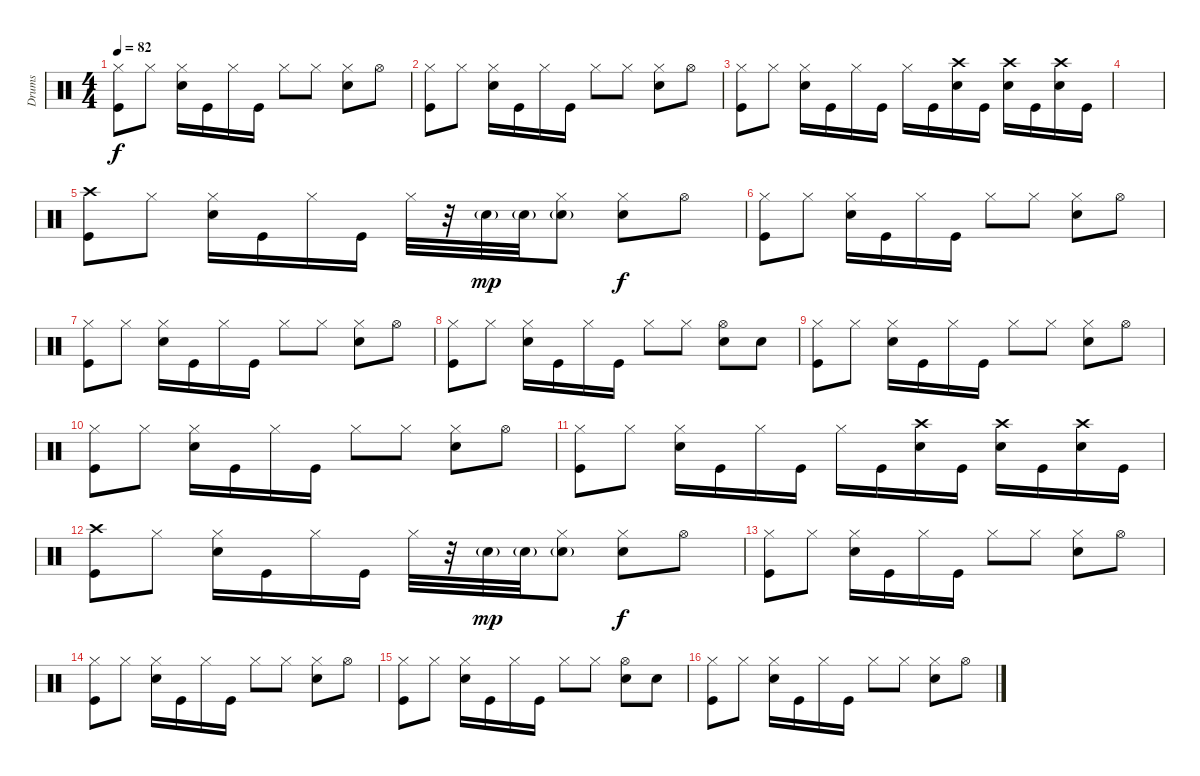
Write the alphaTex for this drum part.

\track ("Drums" "Drums") {instrument percussion}
\staff {score}
\articulation defaults
\ts (4 4)
\tempo 82
\clef neutral
\ks c
("Hi-Hat (closed)" "Kick (hit)").8{dy f} "Hi-Hat (closed)".8 ("Hi-Hat (closed)" "Snare (hit) 2").16 "Kick (hit)".16 "Hi-Hat (closed)".16 "Kick (hit)".16 "Hi-Hat (closed)".8 "Hi-Hat (closed)".8 ("Hi-Hat (closed)" "Snare (hit) 2").8 "Hi-Hat (open)".8 |
("Hi-Hat (closed)" "Kick (hit)").8 "Hi-Hat (closed)".8 ("Hi-Hat (closed)" "Snare (hit) 2").16 "Kick (hit)".16 "Hi-Hat (closed)".16 "Kick (hit)".16 "Hi-Hat (closed)".8 "Hi-Hat (closed)".8 ("Hi-Hat (closed)" "Snare (hit) 2").8 "Hi-Hat (open)".8 |
("Hi-Hat (closed)" "Kick (hit)").8 "Hi-Hat (closed)".8 ("Hi-Hat (closed)" "Snare (hit) 2").16 "Kick (hit)".16 "Hi-Hat (closed)".16 "Kick (hit)".16 "Hi-Hat (closed)".16 "Kick (hit)".16 ("Crash high (hit)" "Electric Snare (hit)").16 "Kick (hit)".16 ("Crash high (hit)" "Electric Snare (hit)").16 "Kick (hit)".16 ("Crash high (hit)" "Electric Snare (hit)").16 "Kick (hit)".16 |
|
("Crash high (hit)" "Kick (hit)").8 "Hi-Hat (closed)".8 ("Hi-Hat (closed)" "Snare (hit) 2").16 "Kick (hit)".16 "Hi-Hat (closed)".16 "Kick (hit)".16 "Hi-Hat (closed)".32 r.32 "Snare (hit) 2"{g}.32{dy mp} "Snare (hit) 2"{g}.32 ("Hi-Hat (closed)" "Snare (hit) 2"{g}).8 ("Hi-Hat (closed)" "Snare (hit) 2").8{dy f} "Hi-Hat (open)".8 |
("Hi-Hat (closed)" "Kick (hit)").8 "Hi-Hat (closed)".8 ("Hi-Hat (closed)" "Snare (hit) 2").16 "Kick (hit)".16 "Hi-Hat (closed)".16 "Kick (hit)".16 "Hi-Hat (closed)".8 "Hi-Hat (closed)".8 ("Hi-Hat (closed)" "Snare (hit) 2").8 "Hi-Hat (open)".8 |
("Hi-Hat (closed)" "Kick (hit)").8 "Hi-Hat (closed)".8 ("Hi-Hat (closed)" "Snare (hit) 2").16 "Kick (hit)".16 "Hi-Hat (closed)".16 "Kick (hit)".16 "Hi-Hat (closed)".8 "Hi-Hat (closed)".8 ("Hi-Hat (closed)" "Snare (hit) 2").8 "Hi-Hat (open)".8 |
("Hi-Hat (closed)" "Kick (hit)").8 "Hi-Hat (closed)".8 ("Hi-Hat (closed)" "Snare (hit) 2").16 "Kick (hit)".16 "Hi-Hat (closed)".16 "Kick (hit)".16 "Hi-Hat (closed)".8 "Hi-Hat (closed)".8 ("Hi-Hat (open)" "Snare (hit) 2").8 "Snare (hit) 2".8 |
("Hi-Hat (closed)" "Kick (hit)").8 "Hi-Hat (closed)".8 ("Hi-Hat (closed)" "Snare (hit) 2").16 "Kick (hit)".16 "Hi-Hat (closed)".16 "Kick (hit)".16 "Hi-Hat (closed)".8 "Hi-Hat (closed)".8 ("Hi-Hat (closed)" "Snare (hit) 2").8 "Hi-Hat (open)".8 |
("Hi-Hat (closed)" "Kick (hit)").8 "Hi-Hat (closed)".8 ("Hi-Hat (closed)" "Snare (hit) 2").16 "Kick (hit)".16 "Hi-Hat (closed)".16 "Kick (hit)".16 "Hi-Hat (closed)".8 "Hi-Hat (closed)".8 ("Hi-Hat (closed)" "Snare (hit) 2").8 "Hi-Hat (open)".8 |
("Hi-Hat (closed)" "Kick (hit)").8 "Hi-Hat (closed)".8 ("Hi-Hat (closed)" "Snare (hit) 2").16 "Kick (hit)".16 "Hi-Hat (closed)".16 "Kick (hit)".16 "Hi-Hat (closed)".16 "Kick (hit)".16 ("Crash high (hit)" "Electric Snare (hit)").16 "Kick (hit)".16 ("Crash high (hit)" "Electric Snare (hit)").16 "Kick (hit)".16 ("Crash high (hit)" "Electric Snare (hit)").16 "Kick (hit)".16 |
("Crash high (hit)" "Kick (hit)").8 "Hi-Hat (closed)".8 ("Hi-Hat (closed)" "Snare (hit) 2").16 "Kick (hit)".16 "Hi-Hat (closed)".16 "Kick (hit)".16 "Hi-Hat (closed)".32 r.32 "Snare (hit) 2"{g}.32{dy mp} "Snare (hit) 2"{g}.32 ("Hi-Hat (closed)" "Snare (hit) 2"{g}).8 ("Hi-Hat (closed)" "Snare (hit) 2").8{dy f} "Hi-Hat (open)".8 |
("Hi-Hat (closed)" "Kick (hit)").8 "Hi-Hat (closed)".8 ("Hi-Hat (closed)" "Snare (hit) 2").16 "Kick (hit)".16 "Hi-Hat (closed)".16 "Kick (hit)".16 "Hi-Hat (closed)".8 "Hi-Hat (closed)".8 ("Hi-Hat (closed)" "Snare (hit) 2").8 "Hi-Hat (open)".8 |
("Hi-Hat (closed)" "Kick (hit)").8 "Hi-Hat (closed)".8 ("Hi-Hat (closed)" "Snare (hit) 2").16 "Kick (hit)".16 "Hi-Hat (closed)".16 "Kick (hit)".16 "Hi-Hat (closed)".8 "Hi-Hat (closed)".8 ("Hi-Hat (closed)" "Snare (hit) 2").8 "Hi-Hat (open)".8 |
("Hi-Hat (closed)" "Kick (hit)").8 "Hi-Hat (closed)".8 ("Hi-Hat (closed)" "Snare (hit) 2").16 "Kick (hit)".16 "Hi-Hat (closed)".16 "Kick (hit)".16 "Hi-Hat (closed)".8 "Hi-Hat (closed)".8 ("Hi-Hat (open)" "Snare (hit) 2").8 "Snare (hit) 2".8 |
("Hi-Hat (closed)" "Kick (hit)").8 "Hi-Hat (closed)".8 ("Hi-Hat (closed)" "Snare (hit) 2").16 "Kick (hit)".16 "Hi-Hat (closed)".16 "Kick (hit)".16 "Hi-Hat (closed)".8 "Hi-Hat (closed)".8 ("Hi-Hat (closed)" "Snare (hit) 2").8 "Hi-Hat (open)".8
